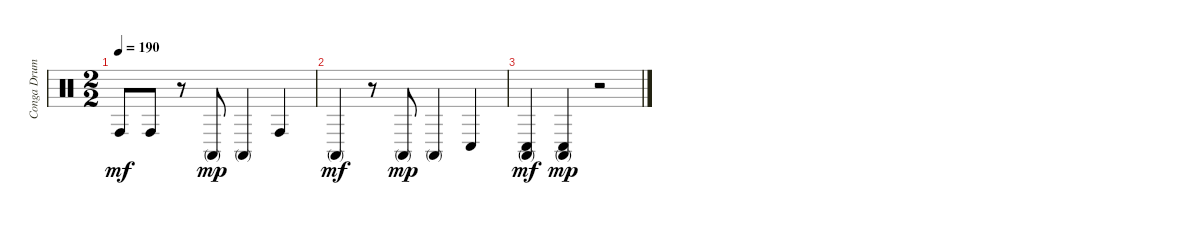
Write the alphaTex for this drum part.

\track ("Conga Drums" "Conga Drum") {instrument percussion}
\staff {score}
\articulation defaults
\ts (2 2)
\tempo 190
\clef neutral
\ks c "Conga high (hit)".8{dy mf} "Conga high (hit)".8
r.8 "Conga high (mute)".8{dy mp} "Conga high (mute)".4 "Conga high (hit)".4 |
"Conga high (mute)".4{dy mf} r.8 "Conga high (mute)".8{dy mp} "Conga high (mute)".4 "Conga low (hit)".4 |
("Conga low (hit)" "Conga high (mute)").4{dy mf} ("Conga low (hit)" "Conga high (mute)").4{dy mp} r.2
